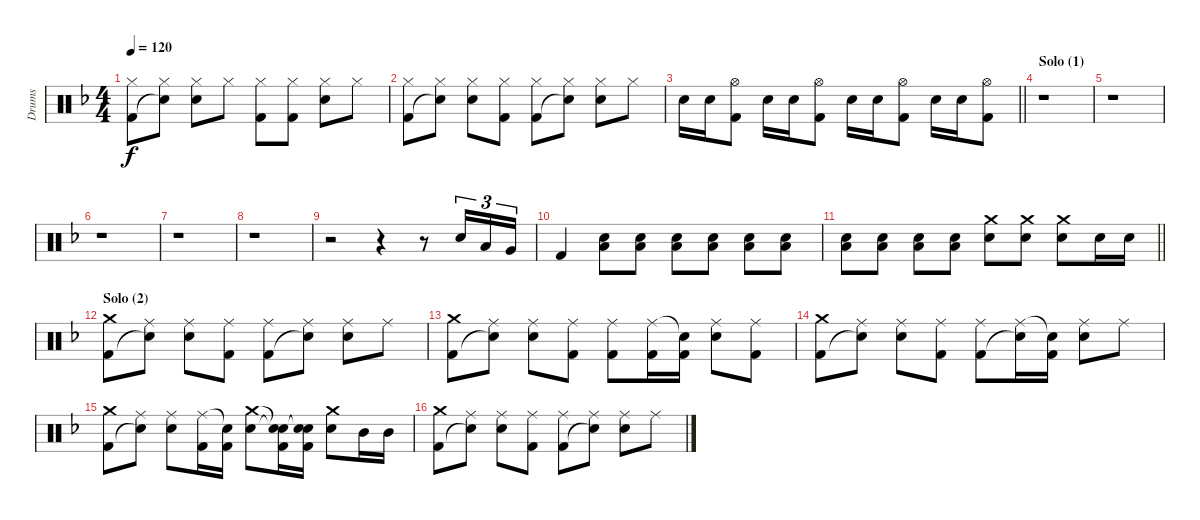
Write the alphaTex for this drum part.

\track ("Drums" "Drums") {instrument percussion}
\staff {score}
\articulation defaults
\ts (4 4)
\tempo 120
\clef neutral
\ks dminor
("Hi-Hat (closed)" "Kick (hit) 2").8{dy f} ("Hi-Hat (closed)" "Snare (hit)"{t}).8 ("Hi-Hat (closed)" "Electric Snare (hit)").8 "Hi-Hat (closed)".8 ("Hi-Hat (closed)" "Kick (hit) 2").8 ("Hi-Hat (closed)" "Kick (hit) 2").8 ("Hi-Hat (closed)" "Electric Snare (hit)").8 "Hi-Hat (closed)".8 |
("Hi-Hat (closed)" "Kick (hit) 2").8 ("Hi-Hat (closed)" "Snare (hit)"{t}).8 ("Hi-Hat (closed)" "Electric Snare (hit)").8 ("Hi-Hat (closed)" "Kick (hit) 2").8 ("Hi-Hat (closed)" "Kick (hit) 2").8 ("Hi-Hat (closed)" "Snare (hit)"{t}).8 ("Hi-Hat (closed)" "Electric Snare (hit)").8 "Hi-Hat (closed)".8 |
\barLineRight lightlight "Electric Snare (hit)".16 "Electric Snare (hit)".16
("Hi-Hat (open)" "Kick (hit) 2").8 "Electric Snare (hit)".16 "Electric Snare (hit)".16 ("Hi-Hat (open)" "Kick (hit) 2").8 "Electric Snare (hit)".16 "Electric Snare (hit)".16 ("Hi-Hat (open)" "Kick (hit) 2").8 "Electric Snare (hit)".16 "Electric Snare (hit)".16 ("Hi-Hat (open)" "Kick (hit) 2").8 |
\section ("" "Solo (1)")
r.1 |
r.1 |
r.1 |
r.1 |
r.1 |
r.2 r.4 r.8 "Electric Snare (hit)".16{tu (3 2)} "Low Tom (hit)".16{tu (3 2)} "Very Low Tom (hit)".16{tu (3 2)} |
"Kick (hit) 2".4 ("Electric Snare (hit)" "Low Floor Tom (hit)").8 ("Electric Snare (hit)" "Low Floor Tom (hit)").8 ("Electric Snare (hit)" "Low Floor Tom (hit)").8 ("Electric Snare (hit)" "Low Floor Tom (hit)").8 ("Electric Snare (hit)" "Low Floor Tom (hit)").8 ("Electric Snare (hit)" "Low Floor Tom (hit)").8 |
\barLineRight lightlight
("Electric Snare (hit)" "Low Floor Tom (hit)").8 ("Electric Snare (hit)" "Low Floor Tom (hit)").8 ("Electric Snare (hit)" "Low Floor Tom (hit)").8 ("Electric Snare (hit)" "Low Floor Tom (hit)").8 ("Crash medium (hit)" "Electric Snare (hit)").8 ("Crash medium (hit)" "Electric Snare (hit)").8 ("Crash medium (hit)" "Electric Snare (hit)").8 "Electric Snare (hit)".16 "Electric Snare (hit)".16 |
\section ("" "Solo (2)")
("Crash medium (hit)" "Kick (hit) 2").8 ("Ride (middle)" "Snare (hit)"{t}).8 ("Ride (middle)" "Electric Snare (hit)").8 ("Ride (middle)" "Kick (hit) 2").8 ("Ride (middle)" "Kick (hit) 2").8 ("Ride (middle)" "Snare (hit)"{t}).8 ("Ride (middle)" "Electric Snare (hit)").8 "Ride (middle)".8 |
("Crash medium (hit)" "Kick (hit) 2").8 ("Ride (middle)" "Snare (hit)"{t}).8 ("Ride (middle)" "Electric Snare (hit)").8 ("Ride (middle)" "Kick (hit) 2").8 ("Ride (middle)" "Kick (hit) 2").8 ("Ride (middle)" "Kick (hit) 2").16 ("Snare (hit)"{t} "Kick (hit) 2").16 ("Ride (middle)" "Electric Snare (hit)").8 ("Ride (middle)" "Kick (hit) 2").8 |
("Crash medium (hit)" "Kick (hit) 2").8 ("Ride (middle)" "Snare (hit)"{t}).8 ("Ride (middle)" "Electric Snare (hit)").8 ("Ride (middle)" "Kick (hit) 2").8 ("Ride (middle)" "Kick (hit) 2").8 ("Ride (middle)" "Snare (hit)"{t}).16 ("Snare (hit)"{t} "Kick (hit) 2").16 ("Ride (middle)" "Electric Snare (hit)").8 "Ride (middle)".8 |
("Crash medium (hit)" "Kick (hit) 2").8 ("Ride (middle)" "Snare (hit)"{t}).8 ("Ride (middle)" "Electric Snare (hit)").8 ("Ride (middle)" "Kick (hit) 2").16 ("Snare (hit)"{t} "Kick (hit) 2").16 ("Crash medium (hit)" "Electric Snare (hit)").8 ("Snare (hit)"{t} "Snare (hit)"{t} "Kick (hit) 2").16 ("Snare (hit)"{t} "Snare (hit)"{t} "Kick (hit) 2").16 ("Crash medium (hit)" "Electric Snare (hit)").8 "Mid Tom (hit)".16 "Mid Tom (hit)".16 |
("Crash medium (hit)" "Kick (hit) 2").8 ("Ride (middle)" "Snare (hit)"{t}).8 ("Ride (middle)" "Electric Snare (hit)").8 ("Ride (middle)" "Kick (hit) 2").8 ("Ride (middle)" "Kick (hit) 2").8 ("Ride (middle)" "Snare (hit)"{t}).8 ("Ride (middle)" "Electric Snare (hit)").8 "Ride (middle)".8
